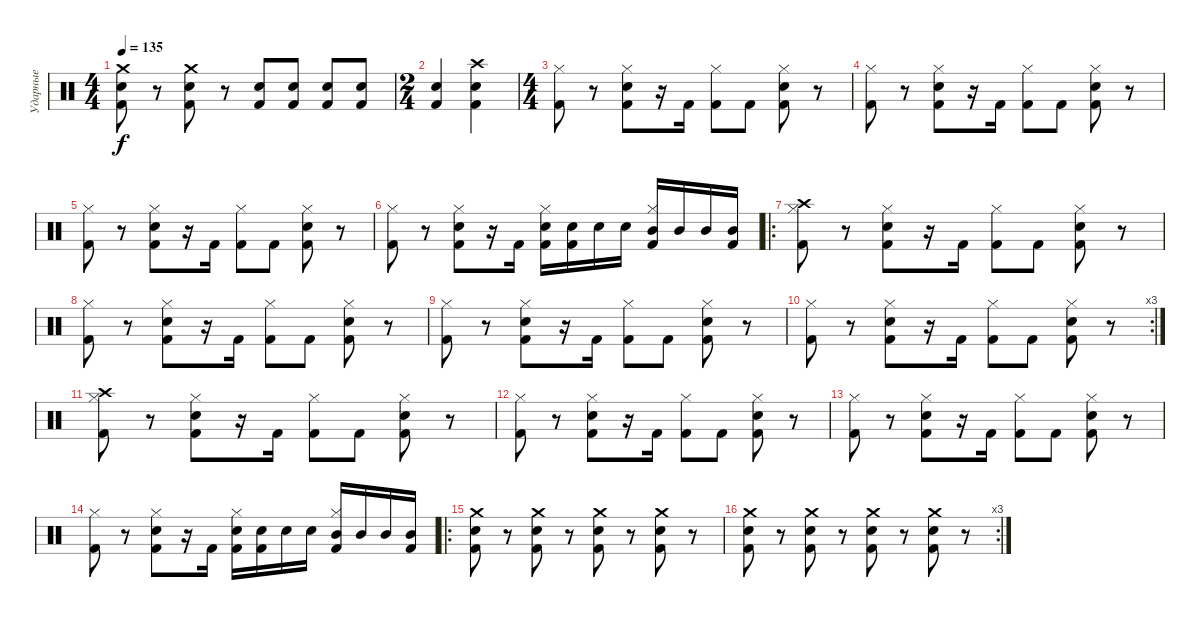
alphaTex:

\track ("Ударные" "Ударные") {instrument percussion}
\staff {score}
\articulation defaults
\ts (4 4)
\tempo 135
\clef neutral
\ks c
("Crash medium (hit)" "Electric Snare (hit)" "Kick (hit) 2").8{dy f} r.8 ("Crash medium (hit)" "Electric Snare (hit)" "Kick (hit) 2").8 r.8 ("Electric Snare (hit)" "Kick (hit) 2").8 ("Electric Snare (hit)" "Kick (hit) 2").8 ("Electric Snare (hit)" "Kick (hit) 2").8 ("Electric Snare (hit)" "Kick (hit) 2").8 |
\ts (2 4)
("Electric Snare (hit)" "Kick (hit) 2").4 ("Crash high (hit)" "Electric Snare (hit)" "Kick (hit) 2").4 |
\ts (4 4)
("Hi-Hat (closed)" "Kick (hit) 2").8 r.8 ("Hi-Hat (closed)" "Electric Snare (hit)" "Kick (hit) 2").8 r.16 "Kick (hit) 2".16 ("Hi-Hat (closed)" "Kick (hit) 2").8 "Kick (hit) 2".8 ("Hi-Hat (closed)" "Electric Snare (hit)" "Kick (hit) 2").8 r.8 |
("Hi-Hat (closed)" "Kick (hit) 2").8 r.8 ("Hi-Hat (closed)" "Electric Snare (hit)" "Kick (hit) 2").8 r.16 "Kick (hit) 2".16 ("Hi-Hat (closed)" "Kick (hit) 2").8 "Kick (hit) 2".8 ("Hi-Hat (closed)" "Electric Snare (hit)" "Kick (hit) 2").8 r.8 |
("Hi-Hat (closed)" "Kick (hit) 2").8 r.8 ("Hi-Hat (closed)" "Electric Snare (hit)" "Kick (hit) 2").8 r.16 "Kick (hit) 2".16 ("Hi-Hat (closed)" "Kick (hit) 2").8 "Kick (hit) 2".8 ("Hi-Hat (closed)" "Electric Snare (hit)" "Kick (hit) 2").8 r.8 |
("Hi-Hat (closed)" "Kick (hit) 2").8 r.8 ("Hi-Hat (closed)" "Electric Snare (hit)" "Kick (hit) 2").8 r.16 "Kick (hit) 2".16 ("Hi-Hat (closed)" "Electric Snare (hit)" "Kick (hit) 2").16 ("Electric Snare (hit)" "Kick (hit) 2").16 "Electric Snare (hit)".16 "Electric Snare (hit)".16 ("Hi-Hat (closed)" "Mid Tom (hit)" "Kick (hit) 2").16 "Mid Tom (hit)".16 "Mid Tom (hit)".16 ("Mid Tom (hit)" "Kick (hit) 2").16 |
\ro
("Hi-Hat (closed)" "Crash high (hit)" "Kick (hit) 2").8 r.8 ("Hi-Hat (closed)" "Electric Snare (hit)" "Kick (hit) 2").8 r.16 "Kick (hit) 2".16 ("Hi-Hat (closed)" "Kick (hit) 2").8 "Kick (hit) 2".8 ("Hi-Hat (closed)" "Electric Snare (hit)" "Kick (hit) 2").8 r.8 |
("Hi-Hat (closed)" "Kick (hit) 2").8 r.8 ("Hi-Hat (closed)" "Electric Snare (hit)" "Kick (hit) 2").8 r.16 "Kick (hit) 2".16 ("Hi-Hat (closed)" "Kick (hit) 2").8 "Kick (hit) 2".8 ("Hi-Hat (closed)" "Electric Snare (hit)" "Kick (hit) 2").8 r.8 |
("Hi-Hat (closed)" "Kick (hit) 2").8 r.8 ("Hi-Hat (closed)" "Electric Snare (hit)" "Kick (hit) 2").8 r.16 "Kick (hit) 2".16 ("Hi-Hat (closed)" "Kick (hit) 2").8 "Kick (hit) 2".8 ("Hi-Hat (closed)" "Electric Snare (hit)" "Kick (hit) 2").8 r.8 |
\rc 3
("Hi-Hat (closed)" "Kick (hit) 2").8 r.8 ("Hi-Hat (closed)" "Electric Snare (hit)" "Kick (hit) 2").8 r.16 "Kick (hit) 2".16 ("Hi-Hat (closed)" "Kick (hit) 2").8 "Kick (hit) 2".8 ("Hi-Hat (closed)" "Electric Snare (hit)" "Kick (hit) 2").8 r.8 |
("Hi-Hat (closed)" "Crash high (hit)" "Kick (hit) 2").8 r.8 ("Hi-Hat (closed)" "Electric Snare (hit)" "Kick (hit) 2").8 r.16 "Kick (hit) 2".16 ("Hi-Hat (closed)" "Kick (hit) 2").8 "Kick (hit) 2".8 ("Hi-Hat (closed)" "Electric Snare (hit)" "Kick (hit) 2").8 r.8 |
("Hi-Hat (closed)" "Kick (hit) 2").8 r.8 ("Hi-Hat (closed)" "Electric Snare (hit)" "Kick (hit) 2").8 r.16 "Kick (hit) 2".16 ("Hi-Hat (closed)" "Kick (hit) 2").8 "Kick (hit) 2".8 ("Hi-Hat (closed)" "Electric Snare (hit)" "Kick (hit) 2").8 r.8 |
("Hi-Hat (closed)" "Kick (hit) 2").8 r.8 ("Hi-Hat (closed)" "Electric Snare (hit)" "Kick (hit) 2").8 r.16 "Kick (hit) 2".16 ("Hi-Hat (closed)" "Kick (hit) 2").8 "Kick (hit) 2".8 ("Hi-Hat (closed)" "Electric Snare (hit)" "Kick (hit) 2").8 r.8 |
("Hi-Hat (closed)" "Kick (hit) 2").8 r.8 ("Hi-Hat (closed)" "Electric Snare (hit)" "Kick (hit) 2").8 r.16 "Kick (hit) 2".16 ("Hi-Hat (closed)" "Electric Snare (hit)" "Kick (hit) 2").16 ("Electric Snare (hit)" "Kick (hit) 2").16 "Electric Snare (hit)".16 "Electric Snare (hit)".16 ("Hi-Hat (closed)" "Mid Tom (hit)" "Kick (hit) 2").16 "Mid Tom (hit)".16 "Mid Tom (hit)".16 ("Mid Tom (hit)" "Kick (hit) 2").16 |
\ro
("Crash medium (hit)" "Electric Snare (hit)" "Kick (hit) 2").8 r.8 ("Crash medium (hit)" "Electric Snare (hit)" "Kick (hit) 2").8 r.8 ("Crash medium (hit)" "Electric Snare (hit)" "Kick (hit) 2").8 r.8 ("Crash medium (hit)" "Electric Snare (hit)" "Kick (hit) 2").8 r.8 |
\rc 3
("Crash medium (hit)" "Electric Snare (hit)" "Kick (hit) 2").8 r.8 ("Crash medium (hit)" "Electric Snare (hit)" "Kick (hit) 2").8 r.8 ("Crash medium (hit)" "Electric Snare (hit)" "Kick (hit) 2").8 r.8 ("Crash medium (hit)" "Electric Snare (hit)" "Kick (hit) 2").8 r.8
